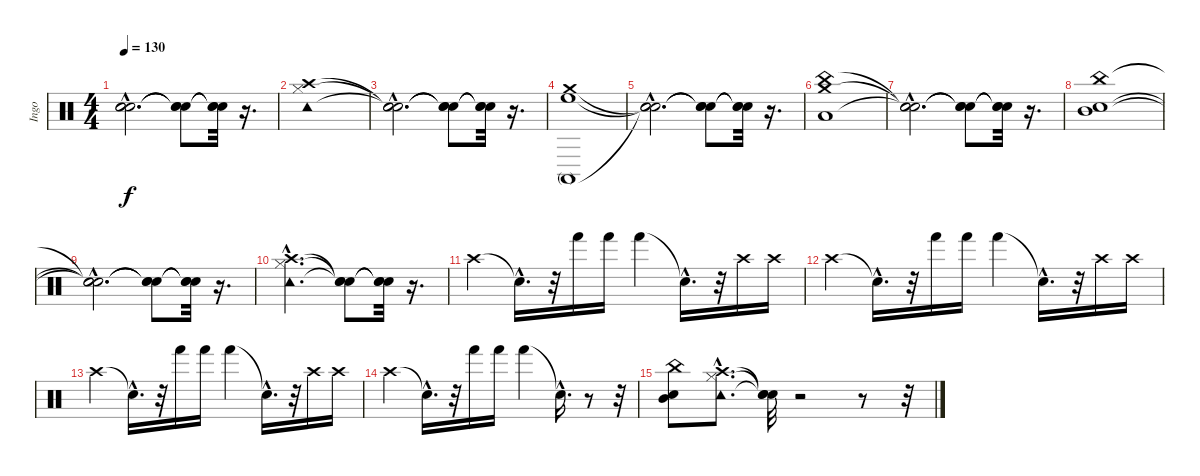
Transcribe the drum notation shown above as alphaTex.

\track ("Ingo" "Ingo") {instrument percussion}
\staff {score}
\articulation defaults
\ts (4 4)
\tempo 130
\clef neutral
\ks c
("Snare (hit)"{hac t} "Snare (hit)"{hac t} "Snare (hit)"{hac t}).2{d dy f} ("Snare (hit)"{t} "Snare (hit)"{t} "Snare (hit)"{t}).8 ("Snare (hit)"{t} "Snare (hit)"{t} "Snare (hit)"{t}).32 r.16{d} |
("Tambourine (hit)" "Hi-Hat (closed)" "Crash high (hit)").1 |
("Snare (hit)"{hac t} "Snare (hit)"{hac t} "Snare (hit)"{hac t}).2{d} ("Snare (hit)"{t} "Snare (hit)"{t} "Snare (hit)"{t}).8 ("Snare (hit)"{t} "Snare (hit)"{t} "Snare (hit)"{t}).32 r.16{d} |
("Conga high (mute)" "High Floor Tom (hit)" "Crash medium (hit)").1 |
("Snare (hit)"{hac t} "Snare (hit)"{hac t} "Snare (hit)"{hac t}).2{d} ("Snare (hit)"{t} "Snare (hit)"{t} "Snare (hit)"{t}).8 ("Snare (hit)"{t} "Snare (hit)"{t} "Snare (hit)"{t}).32 r.16{d} |
("Crash medium (hit)" "Low Tom (hit)" "China (hit)").1 |
("Snare (hit)"{hac t} "Snare (hit)"{hac t} "Snare (hit)"{hac t}).2{d} ("Snare (hit)"{t} "Snare (hit)"{t} "Snare (hit)"{t}).8 ("Snare (hit)"{t} "Snare (hit)"{t} "Snare (hit)"{t}).32 r.16{d} |
("China (hit)" "Electric Snare (hit)" "Mid Tom (hit)").1 |
("Snare (hit)"{hac t} "Snare (hit)"{hac t} "Snare (hit)"{hac t}).2{d} ("Snare (hit)"{t} "Snare (hit)"{t} "Snare (hit)"{t}).8 ("Snare (hit)"{t} "Snare (hit)"{t} "Snare (hit)"{t}).32 r.16{d} |
("Tambourine (hit)"{hac} "Hi-Hat (closed)"{hac} "Crash high (hit)"{hac}).2{d} ("Snare (hit)"{t} "Snare (hit)"{t} "Snare (hit)"{t}).8 ("Snare (hit)"{t} "Snare (hit)"{t} "Snare (hit)"{t}).32 r.16{d} |
"Crash high (hit)".4 "Snare (hit)"{hac t}.16{d} r.32 "Hand (hit)".16 "Hand (hit)".16 "Hand (hit)".4 "Snare (hit)"{hac t}.16{d} r.32 "Crash high (hit)".16 "Crash high (hit)".16 |
"Crash high (hit)".4 "Snare (hit)"{hac t}.16{d} r.32 "Hand (hit)".16 "Hand (hit)".16 "Hand (hit)".4 "Snare (hit)"{hac t}.16{d} r.32 "Crash high (hit)".16 "Crash high (hit)".16 |
"Crash high (hit)".4 "Snare (hit)"{hac t}.16{d} r.32 "Hand (hit)".16 "Hand (hit)".16 "Hand (hit)".4 "Snare (hit)"{hac t}.16{d} r.32 "Crash high (hit)".16 "Crash high (hit)".16 |
"Crash high (hit)".4 "Snare (hit)"{hac t}.16{d} r.32 "Hand (hit)".16 "Hand (hit)".16 "Hand (hit)".4 "Snare (hit)"{hac t}.16{d} r.8 r.32 |
("China (hit)" "Electric Snare (hit)" "Mid Tom (hit)").8 ("Tambourine (hit)"{hac} "Hi-Hat (closed)"{hac} "Crash high (hit)"{hac}).8{d} ("Snare (hit)"{t} "Snare (hit)"{t} "Snare (hit)"{t}).32 r.2 r.8 r.32
